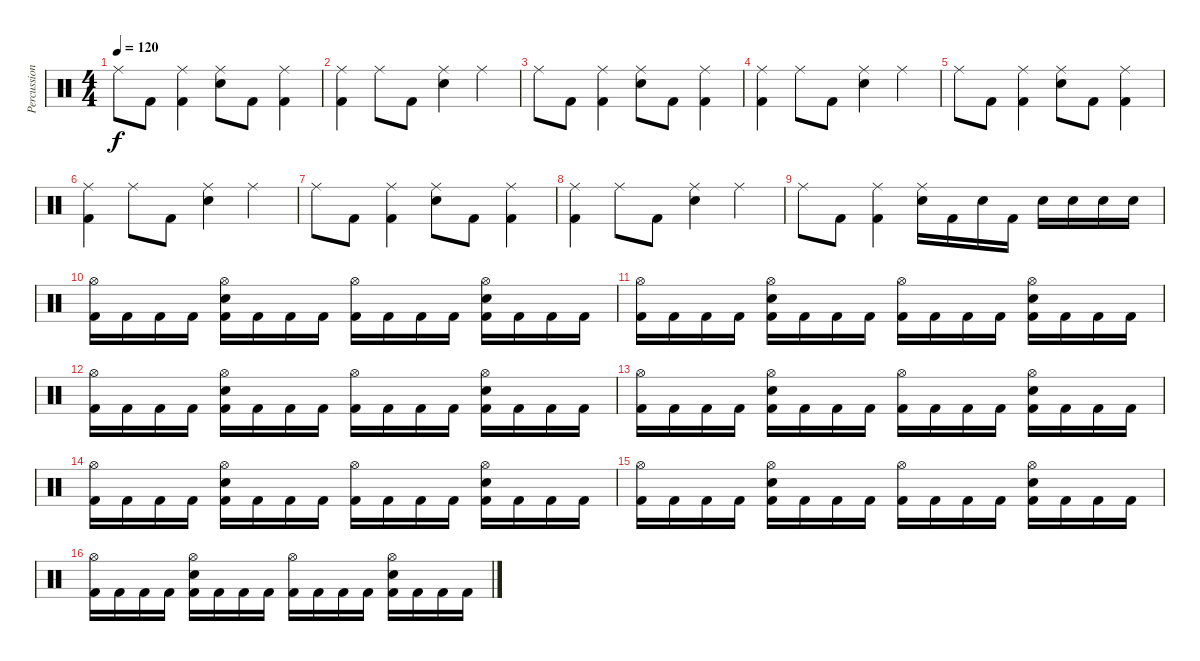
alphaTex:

\track ("Percussion" "Percussion") {instrument percussion}
\staff {score}
\articulation defaults
\ts (4 4)
\tempo 120
\clef neutral
\ks c "Ride (middle)".8{dy f} "Kick (hit) 2".8
("Ride (middle)" "Kick (hit) 2").4 ("Ride (middle)" "Electric Snare (hit)").8 "Kick (hit) 2".8 ("Ride (middle)" "Kick (hit) 2").4 |
("Ride (middle)" "Kick (hit) 2").4 "Ride (middle)".8 "Kick (hit) 2".8 ("Ride (middle)" "Electric Snare (hit)").4 "Ride (middle)".4 |
"Ride (middle)".8 "Kick (hit) 2".8 ("Ride (middle)" "Kick (hit) 2").4 ("Ride (middle)" "Electric Snare (hit)").8 "Kick (hit) 2".8 ("Ride (middle)" "Kick (hit) 2").4 |
("Ride (middle)" "Kick (hit) 2").4 "Ride (middle)".8 "Kick (hit) 2".8 ("Ride (middle)" "Electric Snare (hit)").4 "Ride (middle)".4 |
"Ride (middle)".8 "Kick (hit) 2".8 ("Ride (middle)" "Kick (hit) 2").4 ("Ride (middle)" "Electric Snare (hit)").8 "Kick (hit) 2".8 ("Ride (middle)" "Kick (hit) 2").4 |
("Ride (middle)" "Kick (hit) 2").4 "Ride (middle)".8 "Kick (hit) 2".8 ("Ride (middle)" "Electric Snare (hit)").4 "Ride (middle)".4 |
"Ride (middle)".8 "Kick (hit) 2".8 ("Ride (middle)" "Kick (hit) 2").4 ("Ride (middle)" "Electric Snare (hit)").8 "Kick (hit) 2".8 ("Ride (middle)" "Kick (hit) 2").4 |
("Ride (middle)" "Kick (hit) 2").4 "Ride (middle)".8 "Kick (hit) 2".8 ("Ride (middle)" "Electric Snare (hit)").4 "Ride (middle)".4 |
"Ride (middle)".8 "Kick (hit) 2".8 ("Ride (middle)" "Kick (hit) 2").4 ("Ride (middle)" "Electric Snare (hit)").16 "Kick (hit) 2".16 "Electric Snare (hit)".16 "Kick (hit) 2".16 "Electric Snare (hit)".16 "Electric Snare (hit)".16 "Electric Snare (hit)".16 "Electric Snare (hit)".16 |
("Hi-Hat (open)" "Kick (hit) 2").16 "Kick (hit) 2".16 "Kick (hit) 2".16 "Kick (hit) 2".16 ("Hi-Hat (open)" "Electric Snare (hit)" "Kick (hit) 2").16 "Kick (hit) 2".16 "Kick (hit) 2".16 "Kick (hit) 2".16 ("Hi-Hat (open)" "Kick (hit) 2").16 "Kick (hit) 2".16 "Kick (hit) 2".16 "Kick (hit) 2".16 ("Hi-Hat (open)" "Electric Snare (hit)" "Kick (hit) 2").16 "Kick (hit) 2".16 "Kick (hit) 2".16 "Kick (hit) 2".16 |
("Hi-Hat (open)" "Kick (hit) 2").16 "Kick (hit) 2".16 "Kick (hit) 2".16 "Kick (hit) 2".16 ("Hi-Hat (open)" "Electric Snare (hit)" "Kick (hit) 2").16 "Kick (hit) 2".16 "Kick (hit) 2".16 "Kick (hit) 2".16 ("Hi-Hat (open)" "Kick (hit) 2").16 "Kick (hit) 2".16 "Kick (hit) 2".16 "Kick (hit) 2".16 ("Hi-Hat (open)" "Electric Snare (hit)" "Kick (hit) 2").16 "Kick (hit) 2".16 "Kick (hit) 2".16 "Kick (hit) 2".16 |
("Hi-Hat (open)" "Kick (hit) 2").16 "Kick (hit) 2".16 "Kick (hit) 2".16 "Kick (hit) 2".16 ("Hi-Hat (open)" "Electric Snare (hit)" "Kick (hit) 2").16 "Kick (hit) 2".16 "Kick (hit) 2".16 "Kick (hit) 2".16 ("Hi-Hat (open)" "Kick (hit) 2").16 "Kick (hit) 2".16 "Kick (hit) 2".16 "Kick (hit) 2".16 ("Hi-Hat (open)" "Electric Snare (hit)" "Kick (hit) 2").16 "Kick (hit) 2".16 "Kick (hit) 2".16 "Kick (hit) 2".16 |
("Hi-Hat (open)" "Kick (hit) 2").16 "Kick (hit) 2".16 "Kick (hit) 2".16 "Kick (hit) 2".16 ("Hi-Hat (open)" "Electric Snare (hit)" "Kick (hit) 2").16 "Kick (hit) 2".16 "Kick (hit) 2".16 "Kick (hit) 2".16 ("Hi-Hat (open)" "Kick (hit) 2").16 "Kick (hit) 2".16 "Kick (hit) 2".16 "Kick (hit) 2".16 ("Hi-Hat (open)" "Electric Snare (hit)" "Kick (hit) 2").16 "Kick (hit) 2".16 "Kick (hit) 2".16 "Kick (hit) 2".16 |
("Hi-Hat (open)" "Kick (hit) 2").16 "Kick (hit) 2".16 "Kick (hit) 2".16 "Kick (hit) 2".16 ("Hi-Hat (open)" "Electric Snare (hit)" "Kick (hit) 2").16 "Kick (hit) 2".16 "Kick (hit) 2".16 "Kick (hit) 2".16 ("Hi-Hat (open)" "Kick (hit) 2").16 "Kick (hit) 2".16 "Kick (hit) 2".16 "Kick (hit) 2".16 ("Hi-Hat (open)" "Electric Snare (hit)" "Kick (hit) 2").16 "Kick (hit) 2".16 "Kick (hit) 2".16 "Kick (hit) 2".16 |
("Hi-Hat (open)" "Kick (hit) 2").16 "Kick (hit) 2".16 "Kick (hit) 2".16 "Kick (hit) 2".16 ("Hi-Hat (open)" "Electric Snare (hit)" "Kick (hit) 2").16 "Kick (hit) 2".16 "Kick (hit) 2".16 "Kick (hit) 2".16 ("Hi-Hat (open)" "Kick (hit) 2").16 "Kick (hit) 2".16 "Kick (hit) 2".16 "Kick (hit) 2".16 ("Hi-Hat (open)" "Electric Snare (hit)" "Kick (hit) 2").16 "Kick (hit) 2".16 "Kick (hit) 2".16 "Kick (hit) 2".16 |
("Hi-Hat (open)" "Kick (hit) 2").16 "Kick (hit) 2".16 "Kick (hit) 2".16 "Kick (hit) 2".16 ("Hi-Hat (open)" "Electric Snare (hit)" "Kick (hit) 2").16 "Kick (hit) 2".16 "Kick (hit) 2".16 "Kick (hit) 2".16 ("Hi-Hat (open)" "Kick (hit) 2").16 "Kick (hit) 2".16 "Kick (hit) 2".16 "Kick (hit) 2".16 ("Hi-Hat (open)" "Electric Snare (hit)" "Kick (hit) 2").16 "Kick (hit) 2".16 "Kick (hit) 2".16 "Kick (hit) 2".16
